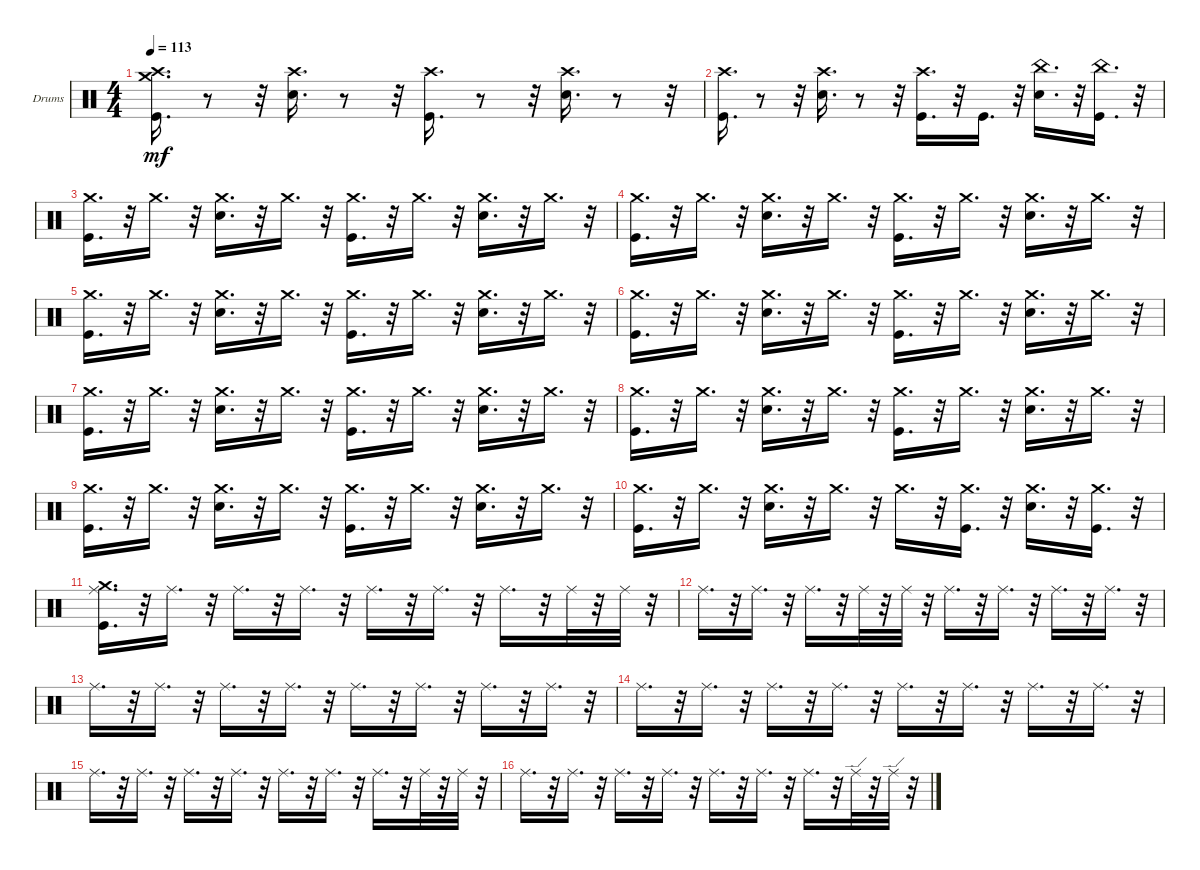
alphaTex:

\bracketExtendMode groupsimilarinstruments
\firstSystemTrackNameOrientation horizontal
\otherSystemsTrackNameOrientation horizontal
\track ("Drumkit" "Drums") {instrument percussion}
\staff {score}
\articulation defaults
\ts (4 4)
\tempo 113
\clef neutral
\ks c
("Crash high (hit)" "Kick (hit)" "Crash medium (hit)").16{d dy mf} r.8 r.32 ("Crash high (hit)" "Snare (hit) 2").16{d} r.8 r.32 ("Crash high (hit)" "Kick (hit)").16{d} r.8 r.32 ("Crash high (hit)" "Snare (hit) 2").16{d} r.8 r.32 |
("Crash high (hit)" "Kick (hit)").16{d} r.8 r.32 ("Crash high (hit)" "Snare (hit) 2").16{d} r.8 r.32 ("Crash high (hit)" "Kick (hit)").16{d} r.32 "Kick (hit)".16{d} r.32 ("China (hit)" "Snare (hit) 2").16{d} r.32 ("China (hit)" "Kick (hit)").16{d} r.32 |
("Crash medium (hit)" "Kick (hit)").16{d} r.32 "Crash medium (hit)".16{d} r.32 ("Crash medium (hit)" "Snare (hit) 2").16{d} r.32 "Crash medium (hit)".16{d} r.32 ("Crash medium (hit)" "Kick (hit)").16{d} r.32 "Crash medium (hit)".16{d} r.32 ("Crash medium (hit)" "Snare (hit) 2").16{d} r.32 "Crash medium (hit)".16{d} r.32 |
("Crash medium (hit)" "Kick (hit)").16{d} r.32 "Crash medium (hit)".16{d} r.32 ("Crash medium (hit)" "Snare (hit) 2").16{d} r.32 "Crash medium (hit)".16{d} r.32 ("Crash medium (hit)" "Kick (hit)").16{d} r.32 "Crash medium (hit)".16{d} r.32 ("Crash medium (hit)" "Snare (hit) 2").16{d} r.32 "Crash medium (hit)".16{d} r.32 |
("Crash medium (hit)" "Kick (hit)").16{d} r.32 "Crash medium (hit)".16{d} r.32 ("Crash medium (hit)" "Snare (hit) 2").16{d} r.32 "Crash medium (hit)".16{d} r.32 ("Crash medium (hit)" "Kick (hit)").16{d} r.32 "Crash medium (hit)".16{d} r.32 ("Crash medium (hit)" "Snare (hit) 2").16{d} r.32 "Crash medium (hit)".16{d} r.32 |
("Crash medium (hit)" "Kick (hit)").16{d} r.32 "Crash medium (hit)".16{d} r.32 ("Crash medium (hit)" "Snare (hit) 2").16{d} r.32 "Crash medium (hit)".16{d} r.32 ("Crash medium (hit)" "Kick (hit)").16{d} r.32 "Crash medium (hit)".16{d} r.32 ("Crash medium (hit)" "Snare (hit) 2").16{d} r.32 "Crash medium (hit)".16{d} r.32 |
("Crash medium (hit)" "Kick (hit)").16{d} r.32 "Crash medium (hit)".16{d} r.32 ("Crash medium (hit)" "Snare (hit) 2").16{d} r.32 "Crash medium (hit)".16{d} r.32 ("Crash medium (hit)" "Kick (hit)").16{d} r.32 "Crash medium (hit)".16{d} r.32 ("Crash medium (hit)" "Snare (hit) 2").16{d} r.32 "Crash medium (hit)".16{d} r.32 |
("Crash medium (hit)" "Kick (hit)").16{d} r.32 "Crash medium (hit)".16{d} r.32 ("Crash medium (hit)" "Snare (hit) 2").16{d} r.32 "Crash medium (hit)".16{d} r.32 ("Crash medium (hit)" "Kick (hit)").16{d} r.32 "Crash medium (hit)".16{d} r.32 ("Crash medium (hit)" "Snare (hit) 2").16{d} r.32 "Crash medium (hit)".16{d} r.32 |
("Crash medium (hit)" "Kick (hit)").16{d} r.32 "Crash medium (hit)".16{d} r.32 ("Crash medium (hit)" "Snare (hit) 2").16{d} r.32 "Crash medium (hit)".16{d} r.32 ("Crash medium (hit)" "Kick (hit)").16{d} r.32 "Crash medium (hit)".16{d} r.32 ("Crash medium (hit)" "Snare (hit) 2").16{d} r.32 "Crash medium (hit)".16{d} r.32 |
("Crash medium (hit)" "Kick (hit)").16{d} r.32 "Crash medium (hit)".16{d} r.32 ("Crash medium (hit)" "Snare (hit) 2").16{d} r.32 "Crash medium (hit)".16{d} r.32 "Crash medium (hit)".16{d} r.32 ("Crash medium (hit)" "Kick (hit)").16{d} r.32 ("Crash medium (hit)" "Snare (hit) 2").16{d} r.32 ("Crash medium (hit)" "Kick (hit)").16{d} r.32 |
("Crash medium (hit)" "Kick (hit)" "Ride (middle)").16{d} r.32 "Ride (middle)".16{d} r.32 "Ride (middle)".16{d} r.32 "Ride (middle)".16{d} r.32 "Ride (middle)".16{d} r.32 "Ride (middle)".16{d} r.32 "Ride (middle)".16{d} r.32 "Ride (middle)".32 r.32 "Ride (middle)".32 r.32 |
"Ride (middle)".16{d} r.32 "Ride (middle)".16{d} r.32 "Ride (middle)".16{d} r.32 "Ride (middle)".32 r.32 "Ride (middle)".32 r.32 "Ride (middle)".16{d} r.32 "Ride (middle)".16{d} r.32 "Ride (middle)".16{d} r.32 "Ride (middle)".16{d} r.32 |
"Ride (middle)".16{d} r.32 "Ride (middle)".16{d} r.32 "Ride (middle)".16{d} r.32 "Ride (middle)".16{d} r.32 "Ride (middle)".16{d} r.32 "Ride (middle)".16{d} r.32 "Ride (middle)".16{d} r.32 "Ride (middle)".16{d} r.32 |
"Ride (middle)".16{d} r.32 "Ride (middle)".16{d} r.32 "Ride (middle)".16{d} r.32 "Ride (middle)".16{d} r.32 "Ride (middle)".16{d} r.32 "Ride (middle)".16{d} r.32 "Ride (middle)".16{d} r.32 "Ride (middle)".16{d} r.32 |
"Ride (middle)".16{d} r.32 "Ride (middle)".16{d} r.32 "Ride (middle)".16{d} r.32 "Ride (middle)".16{d} r.32 "Ride (middle)".16{d} r.32 "Ride (middle)".16{d} r.32 "Ride (middle)".16{d} r.32 "Ride (middle)".32 r.32 "Ride (middle)".32 r.32 |
"Ride (middle)".16{d} r.32 "Ride (middle)".16{d} r.32 "Ride (middle)".16{d} r.32 "Ride (middle)".16{d} r.32 "Ride (middle)".16{d} r.32 "Ride (middle)".16{d} r.32 "Ride (middle)".16{d} r.32 "Ride (edge)".32 r.32 "Ride (edge)".32 r.32
